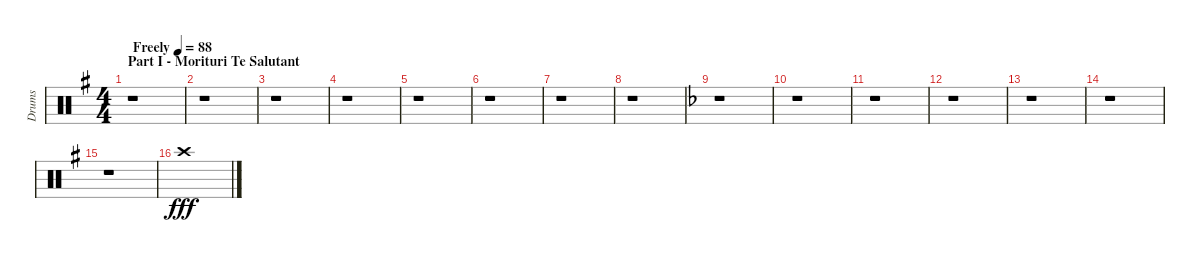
\track ("Drums" "Drums") {instrument percussion}
\staff {score}
\articulation defaults
\ts (4 4)
\section ("" "Part I - Morituri Te Salutant")
\tempo (88 "Freely")
\clef neutral
\ks g
r.1{dy fff} |
r.1 |
r.1 |
r.1 |
r.1 |
r.1 |
r.1 |
r.1 |
\ks f
r.1 |
r.1 |
r.1 |
r.1 |
r.1 |
r.1 |
\ks g
r.1 |
"Crash high (hit)".1
